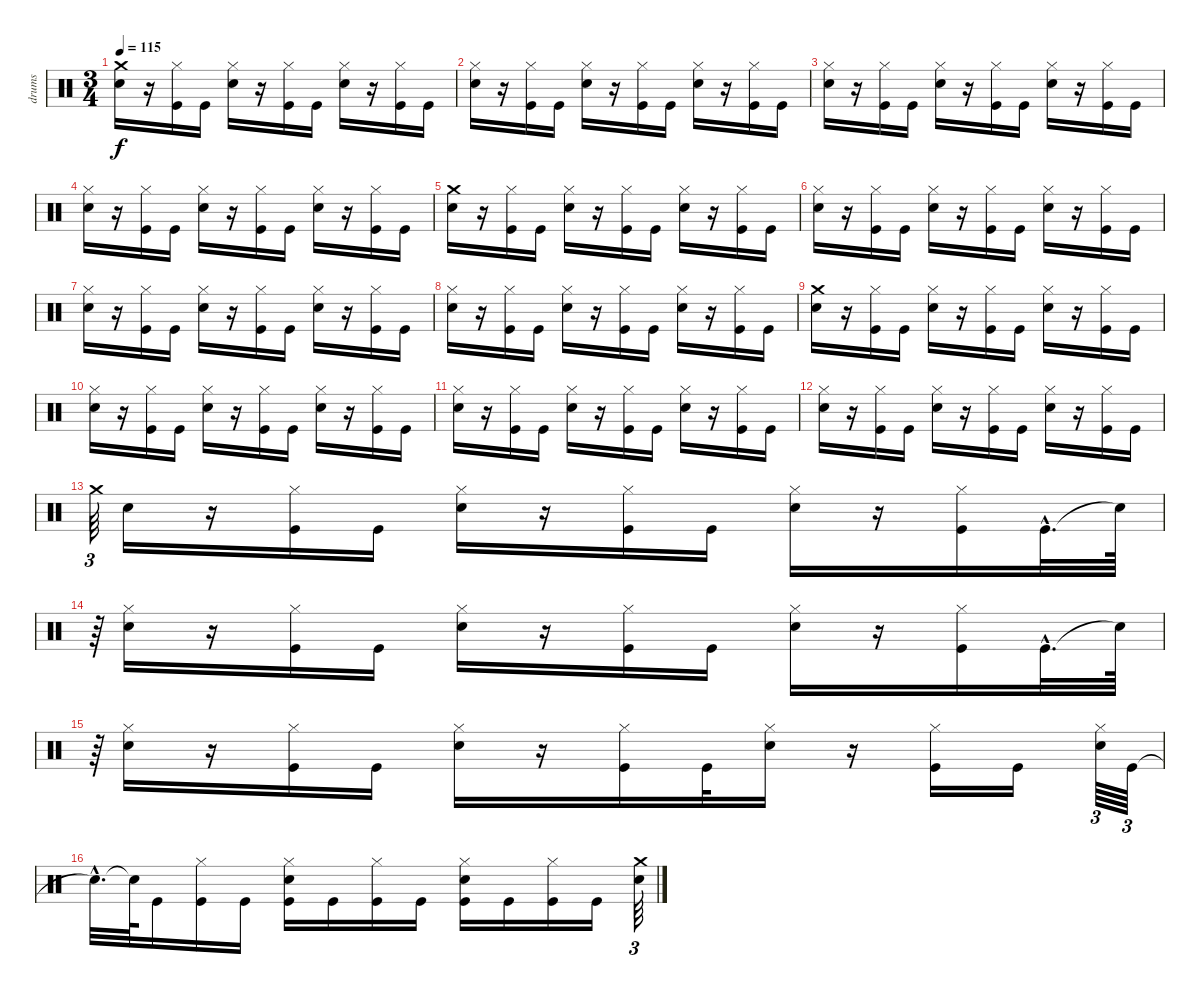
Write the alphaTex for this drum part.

\track ("drums" "drums") {instrument percussion}
\staff {score}
\articulation defaults
\ts (3 4)
\tempo 115
\clef neutral
\ks c
("Crash medium (hit)" "Electric Snare (hit)").16{dy f} r.16 ("Hi-Hat (closed)" "Kick (hit)").16 "Kick (hit)".16 ("Hi-Hat (closed)" "Electric Snare (hit)").16 r.16 ("Hi-Hat (closed)" "Kick (hit)").16 "Kick (hit)".16 ("Hi-Hat (closed)" "Electric Snare (hit)").16 r.16 ("Hi-Hat (closed)" "Kick (hit)").16 "Kick (hit)".16 |
("Hi-Hat (closed)" "Electric Snare (hit)").16 r.16 ("Hi-Hat (closed)" "Kick (hit)").16 "Kick (hit)".16 ("Hi-Hat (closed)" "Electric Snare (hit)").16 r.16 ("Hi-Hat (closed)" "Kick (hit)").16 "Kick (hit)".16 ("Hi-Hat (closed)" "Electric Snare (hit)").16 r.16 ("Hi-Hat (closed)" "Kick (hit)").16 "Kick (hit)".16 |
("Hi-Hat (closed)" "Electric Snare (hit)").16 r.16 ("Hi-Hat (closed)" "Kick (hit)").16 "Kick (hit)".16 ("Hi-Hat (closed)" "Electric Snare (hit)").16 r.16 ("Hi-Hat (closed)" "Kick (hit)").16 "Kick (hit)".16 ("Hi-Hat (closed)" "Electric Snare (hit)").16 r.16 ("Hi-Hat (closed)" "Kick (hit)").16 "Kick (hit)".16 |
("Hi-Hat (closed)" "Electric Snare (hit)").16 r.16 ("Hi-Hat (closed)" "Kick (hit)").16 "Kick (hit)".16 ("Hi-Hat (closed)" "Electric Snare (hit)").16 r.16 ("Hi-Hat (closed)" "Kick (hit)").16 "Kick (hit)".16 ("Hi-Hat (closed)" "Electric Snare (hit)").16 r.16 ("Hi-Hat (closed)" "Kick (hit)").16 "Kick (hit)".16 |
("Crash medium (hit)" "Electric Snare (hit)").16 r.16 ("Hi-Hat (closed)" "Kick (hit)").16 "Kick (hit)".16 ("Hi-Hat (closed)" "Electric Snare (hit)").16 r.16 ("Hi-Hat (closed)" "Kick (hit)").16 "Kick (hit)".16 ("Hi-Hat (closed)" "Electric Snare (hit)").16 r.16 ("Hi-Hat (closed)" "Kick (hit)").16 "Kick (hit)".16 |
("Hi-Hat (closed)" "Electric Snare (hit)").16 r.16 ("Hi-Hat (closed)" "Kick (hit)").16 "Kick (hit)".16 ("Hi-Hat (closed)" "Electric Snare (hit)").16 r.16 ("Hi-Hat (closed)" "Kick (hit)").16 "Kick (hit)".16 ("Hi-Hat (closed)" "Electric Snare (hit)").16 r.16 ("Hi-Hat (closed)" "Kick (hit)").16 "Kick (hit)".16 |
("Hi-Hat (closed)" "Electric Snare (hit)").16 r.16 ("Hi-Hat (closed)" "Kick (hit)").16 "Kick (hit)".16 ("Hi-Hat (closed)" "Electric Snare (hit)").16 r.16 ("Hi-Hat (closed)" "Kick (hit)").16 "Kick (hit)".16 ("Hi-Hat (closed)" "Electric Snare (hit)").16 r.16 ("Hi-Hat (closed)" "Kick (hit)").16 "Kick (hit)".16 |
("Hi-Hat (closed)" "Electric Snare (hit)").16 r.16 ("Hi-Hat (closed)" "Kick (hit)").16 "Kick (hit)".16 ("Hi-Hat (closed)" "Electric Snare (hit)").16 r.16 ("Hi-Hat (closed)" "Kick (hit)").16 "Kick (hit)".16 ("Hi-Hat (closed)" "Electric Snare (hit)").16 r.16 ("Hi-Hat (closed)" "Kick (hit)").16 "Kick (hit)".16 |
("Electric Snare (hit)" "Crash medium (hit)").16 r.16 ("Hi-Hat (closed)" "Kick (hit)").16 "Kick (hit)".16 ("Hi-Hat (closed)" "Electric Snare (hit)").16 r.16 ("Hi-Hat (closed)" "Kick (hit)").16 "Kick (hit)".16 ("Hi-Hat (closed)" "Electric Snare (hit)").16 r.16 ("Hi-Hat (closed)" "Kick (hit)").16 "Kick (hit)".16 |
("Hi-Hat (closed)" "Electric Snare (hit)").16 r.16 ("Hi-Hat (closed)" "Kick (hit)").16 "Kick (hit)".16 ("Hi-Hat (closed)" "Electric Snare (hit)").16 r.16 ("Hi-Hat (closed)" "Kick (hit)").16 "Kick (hit)".16 ("Hi-Hat (closed)" "Electric Snare (hit)").16 r.16 ("Hi-Hat (closed)" "Kick (hit)").16 "Kick (hit)".16 |
("Hi-Hat (closed)" "Electric Snare (hit)").16 r.16 ("Hi-Hat (closed)" "Kick (hit)").16 "Kick (hit)".16 ("Hi-Hat (closed)" "Electric Snare (hit)").16 r.16 ("Hi-Hat (closed)" "Kick (hit)").16 "Kick (hit)".16 ("Hi-Hat (closed)" "Electric Snare (hit)").16 r.16 ("Hi-Hat (closed)" "Kick (hit)").16 "Kick (hit)".16 |
("Hi-Hat (closed)" "Electric Snare (hit)").16 r.16 ("Hi-Hat (closed)" "Kick (hit)").16 "Kick (hit)".16 ("Hi-Hat (closed)" "Electric Snare (hit)").16 r.16 ("Hi-Hat (closed)" "Kick (hit)").16 "Kick (hit)".16 ("Hi-Hat (closed)" "Electric Snare (hit)").16 r.16 ("Hi-Hat (closed)" "Kick (hit)").16 "Kick (hit)".16 |
"Crash medium (hit)".64{tu (3 2)} "Electric Snare (hit)".16 r.16 ("Hi-Hat (closed)" "Kick (hit)").16 "Kick (hit)".16 ("Hi-Hat (closed)" "Electric Snare (hit)").16 r.16 ("Hi-Hat (closed)" "Kick (hit)").16 "Kick (hit)".16 ("Hi-Hat (closed)" "Electric Snare (hit)").16 r.16 ("Hi-Hat (closed)" "Kick (hit)").16 "Kick (hit)"{hac}.32{d} "Snare (hit)"{t}.64 |
r.64{tu (3 2)} ("Hi-Hat (closed)" "Electric Snare (hit)").16 r.16 ("Hi-Hat (closed)" "Kick (hit)").16 "Kick (hit)".16 ("Hi-Hat (closed)" "Electric Snare (hit)").16 r.16 ("Hi-Hat (closed)" "Kick (hit)").16 "Kick (hit)".16 ("Hi-Hat (closed)" "Electric Snare (hit)").16 r.16 ("Hi-Hat (closed)" "Kick (hit)").16 "Kick (hit)"{hac}.32{d} "Snare (hit)"{t}.64 |
r.64{tu (3 2)} ("Hi-Hat (closed)" "Electric Snare (hit)").16 r.16 ("Hi-Hat (closed)" "Kick (hit)").16 "Kick (hit)".16 ("Hi-Hat (closed)" "Electric Snare (hit)").16 r.16 ("Hi-Hat (closed)" "Kick (hit)").16 "Kick (hit)".32 ("Hi-Hat (closed)" "Electric Snare (hit)").16 r.16 ("Hi-Hat (closed)" "Kick (hit)").16 "Kick (hit)".16 ("Hi-Hat (closed)" "Electric Snare (hit)").64{tu (3 2)} "Kick (hit)".64{tu (3 2)} |
"Snare (hit)"{hac t}.32{d} "Snare (hit)"{t}.64 "Kick (hit)".16 ("Hi-Hat (closed)" "Kick (hit)").16 "Kick (hit)".16 ("Kick (hit)" "Hi-Hat (closed)" "Electric Snare (hit)").16 "Kick (hit)".16 ("Hi-Hat (closed)" "Kick (hit)").16 "Kick (hit)".16 ("Kick (hit)" "Hi-Hat (closed)" "Electric Snare (hit)").16 "Kick (hit)".16 ("Hi-Hat (closed)" "Kick (hit)").16 "Kick (hit)".16 ("Electric Snare (hit)" "Crash medium (hit)").64{tu (3 2)}
